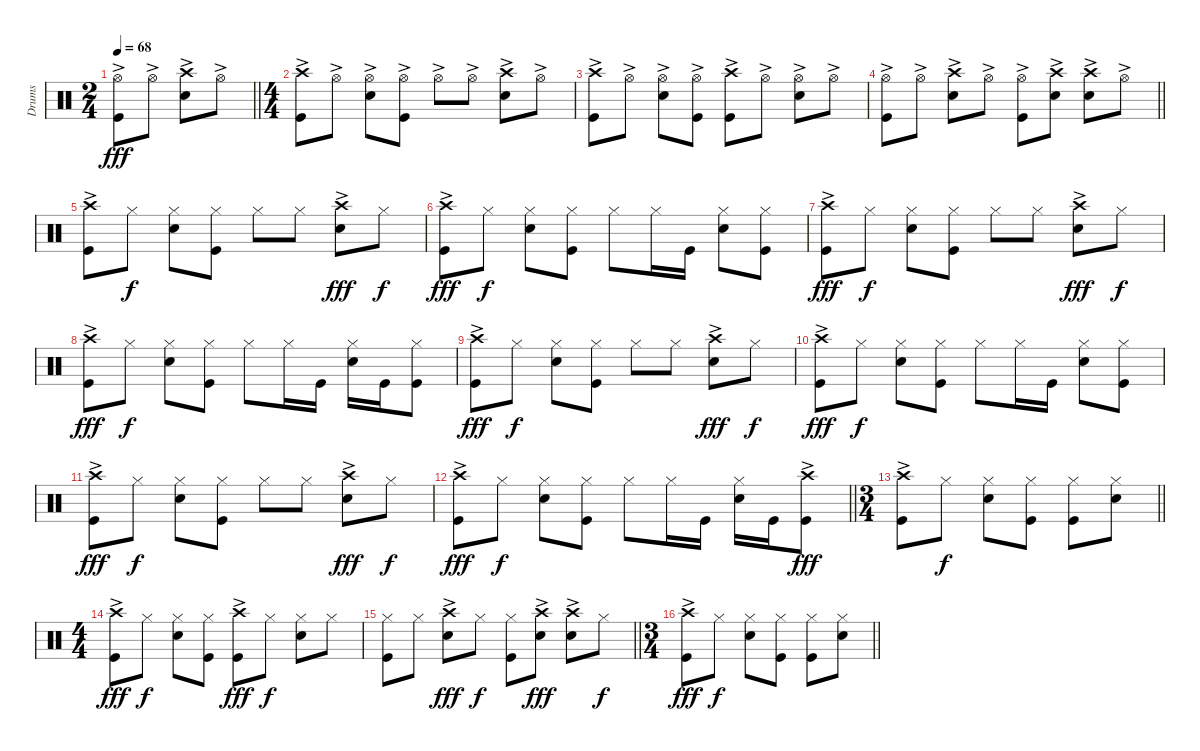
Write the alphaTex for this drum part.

\track ("Drums" "Drums") {instrument percussion}
\staff {score}
\articulation defaults
\ts (2 4)
\tempo 68
\clef neutral
\barLineRight lightlight
\ks c
("Hi-Hat (open)"{ac} "Kick (hit)").8{dy fff} "Hi-Hat (open)"{ac}.8 ("Crash high (hit)"{ac} "Snare (hit) 2").8 "Hi-Hat (open)"{ac}.8 |
\ts (4 4)
("Crash high (hit)"{ac} "Kick (hit)").8 "Hi-Hat (open)"{ac}.8 ("Hi-Hat (open)"{ac} "Snare (hit) 2").8 ("Hi-Hat (open)"{ac} "Kick (hit)").8 "Hi-Hat (open)"{ac}.8 "Hi-Hat (open)"{ac}.8 ("Crash high (hit)"{ac} "Snare (hit) 2").8 "Hi-Hat (open)"{ac}.8 |
("Crash high (hit)"{ac} "Kick (hit)").8 "Hi-Hat (open)"{ac}.8 ("Hi-Hat (open)"{ac} "Snare (hit) 2").8 ("Hi-Hat (open)"{ac} "Kick (hit)").8 ("Crash high (hit)"{ac} "Kick (hit)").8 "Hi-Hat (open)"{ac}.8 ("Hi-Hat (open)"{ac} "Snare (hit) 2").8 "Hi-Hat (open)"{ac}.8 |
\barLineRight lightlight
("Hi-Hat (open)"{ac} "Kick (hit)").8 "Hi-Hat (open)"{ac}.8 ("Crash high (hit)"{ac} "Snare (hit) 2").8 "Hi-Hat (open)"{ac}.8 ("Hi-Hat (open)"{ac} "Kick (hit)").8 ("Crash high (hit)"{ac} "Snare (hit) 2").8 ("Crash high (hit)"{ac} "Snare (hit) 2").8 "Hi-Hat (open)"{ac}.8 |
("Crash high (hit)"{ac} "Kick (hit)").8 "Hi-Hat (closed)".8{dy f} ("Hi-Hat (closed)" "Snare (hit) 2").8 ("Hi-Hat (closed)" "Kick (hit)").8 "Hi-Hat (closed)".8 "Hi-Hat (closed)".8 ("Crash high (hit)"{ac} "Snare (hit) 2").8{dy fff} "Hi-Hat (closed)".8{dy f} |
("Crash high (hit)"{ac} "Kick (hit)").8{dy fff} "Hi-Hat (closed)".8{dy f} ("Hi-Hat (closed)" "Snare (hit) 2").8 ("Hi-Hat (closed)" "Kick (hit)").8 "Hi-Hat (closed)".8 "Hi-Hat (closed)".16 "Kick (hit)".16 ("Hi-Hat (closed)" "Snare (hit) 2").8 ("Hi-Hat (closed)" "Kick (hit)").8 |
("Crash high (hit)"{ac} "Kick (hit)").8{dy fff} "Hi-Hat (closed)".8{dy f} ("Hi-Hat (closed)" "Snare (hit) 2").8 ("Hi-Hat (closed)" "Kick (hit)").8 "Hi-Hat (closed)".8 "Hi-Hat (closed)".8 ("Crash high (hit)"{ac} "Snare (hit) 2").8{dy fff} "Hi-Hat (closed)".8{dy f} |
("Crash high (hit)"{ac} "Kick (hit)").8{dy fff} "Hi-Hat (closed)".8{dy f} ("Hi-Hat (closed)" "Snare (hit) 2").8 ("Hi-Hat (closed)" "Kick (hit)").8 "Hi-Hat (closed)".8 "Hi-Hat (closed)".16 "Kick (hit)".16 ("Hi-Hat (closed)" "Snare (hit) 2").16 "Kick (hit)".16 ("Hi-Hat (closed)" "Kick (hit)").8 |
("Crash high (hit)"{ac} "Kick (hit)").8{dy fff} "Hi-Hat (closed)".8{dy f} ("Hi-Hat (closed)" "Snare (hit) 2").8 ("Hi-Hat (closed)" "Kick (hit)").8 "Hi-Hat (closed)".8 "Hi-Hat (closed)".8 ("Crash high (hit)"{ac} "Snare (hit) 2").8{dy fff} "Hi-Hat (closed)".8{dy f} |
("Crash high (hit)"{ac} "Kick (hit)").8{dy fff} "Hi-Hat (closed)".8{dy f} ("Hi-Hat (closed)" "Snare (hit) 2").8 ("Hi-Hat (closed)" "Kick (hit)").8 "Hi-Hat (closed)".8 "Hi-Hat (closed)".16 "Kick (hit)".16 ("Hi-Hat (closed)" "Snare (hit) 2").8 ("Hi-Hat (closed)" "Kick (hit)").8 |
("Crash high (hit)"{ac} "Kick (hit)").8{dy fff} "Hi-Hat (closed)".8{dy f} ("Hi-Hat (closed)" "Snare (hit) 2").8 ("Hi-Hat (closed)" "Kick (hit)").8 "Hi-Hat (closed)".8 "Hi-Hat (closed)".8 ("Crash high (hit)"{ac} "Snare (hit) 2").8{dy fff} "Hi-Hat (closed)".8{dy f} |
\barLineRight lightlight
("Crash high (hit)"{ac} "Kick (hit)").8{dy fff} "Hi-Hat (closed)".8{dy f} ("Hi-Hat (closed)" "Snare (hit) 2").8 ("Hi-Hat (closed)" "Kick (hit)").8 "Hi-Hat (closed)".8 "Hi-Hat (closed)".16 "Kick (hit)".16 ("Hi-Hat (closed)" "Snare (hit) 2").16 "Kick (hit)".16 ("Crash high (hit)"{ac} "Kick (hit)").8{dy fff} |
\ts (3 4)
\barLineRight lightlight
("Crash high (hit)"{ac} "Kick (hit)").8 "Hi-Hat (closed)".8{dy f} ("Hi-Hat (closed)" "Snare (hit) 2").8 ("Hi-Hat (closed)" "Kick (hit)").8 ("Hi-Hat (closed)" "Kick (hit)").8 ("Hi-Hat (closed)" "Snare (hit) 2").8 |
\ts (4 4)
("Crash high (hit)"{ac} "Kick (hit)").8{dy fff} "Hi-Hat (closed)".8{dy f} ("Hi-Hat (closed)" "Snare (hit) 2").8 ("Hi-Hat (closed)" "Kick (hit)").8 ("Crash high (hit)"{ac} "Kick (hit)").8{dy fff} "Hi-Hat (closed)".8{dy f} ("Hi-Hat (closed)" "Snare (hit) 2").8 "Hi-Hat (closed)".8 |
\barLineRight lightlight
("Hi-Hat (closed)" "Kick (hit)").8 "Hi-Hat (closed)".8 ("Crash high (hit)"{ac} "Snare (hit) 2").8{dy fff} "Hi-Hat (closed)".8{dy f} ("Hi-Hat (closed)" "Kick (hit)").8 ("Crash high (hit)"{ac} "Snare (hit) 2").8{dy fff} ("Crash high (hit)"{ac} "Snare (hit) 2").8 "Hi-Hat (closed)".8{dy f} |
\ts (3 4)
\barLineRight lightlight
("Crash high (hit)"{ac} "Kick (hit)").8{dy fff} "Hi-Hat (closed)".8{dy f} ("Hi-Hat (closed)" "Snare (hit) 2").8 ("Hi-Hat (closed)" "Kick (hit)").8 ("Hi-Hat (closed)" "Kick (hit)").8 ("Hi-Hat (closed)" "Snare (hit) 2").8
